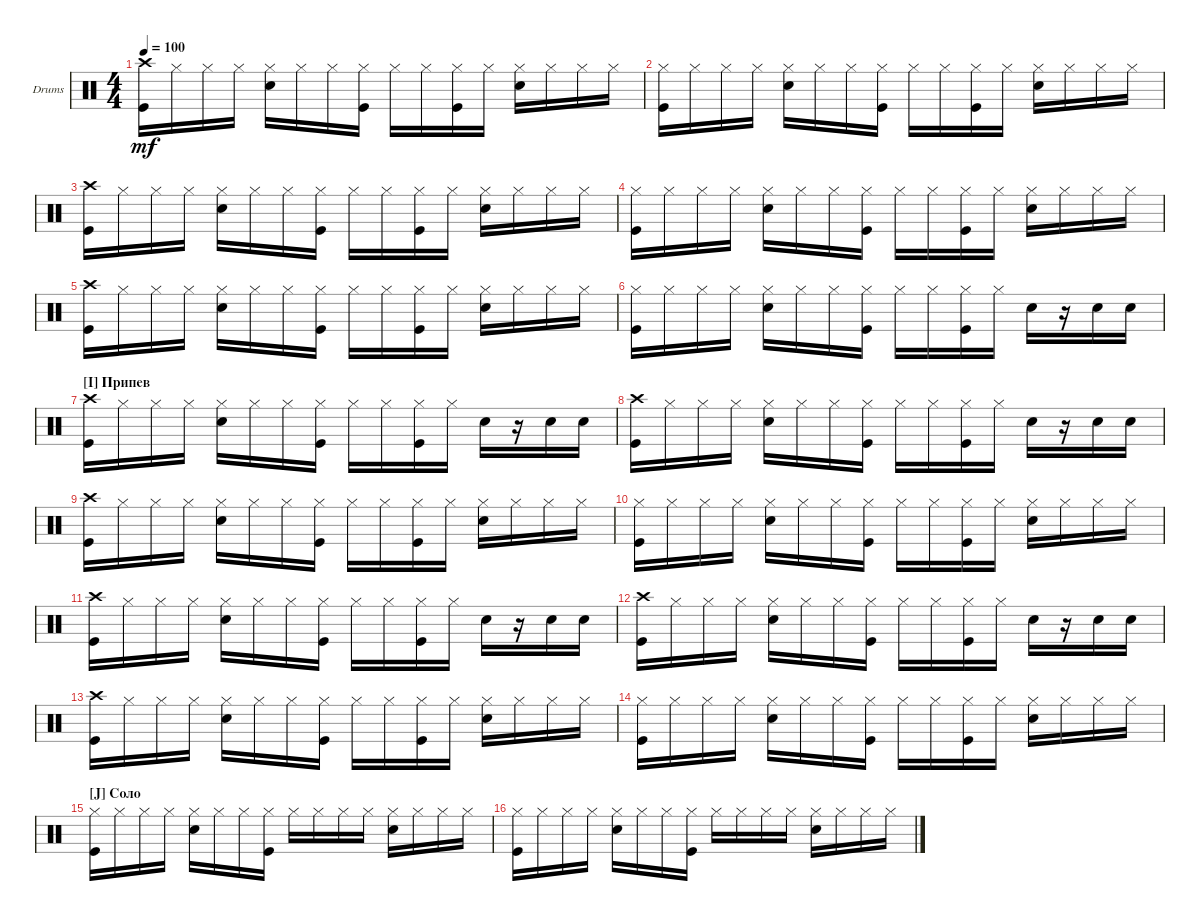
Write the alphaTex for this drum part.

\bracketExtendMode groupsimilarinstruments
\firstSystemTrackNameOrientation horizontal
\otherSystemsTrackNameOrientation horizontal
\track ("Drumkit" "Drums") {instrument percussion}
\staff {score}
\articulation defaults
\ts (4 4)
\tempo 100
\clef neutral
\ks c
("Kick (hit)" "Crash high (hit)").16{dy mf} "Hi-Hat (closed)".16 "Hi-Hat (closed)".16 "Hi-Hat (closed)".16 ("Hi-Hat (closed)" "Snare (hit) 2").16 "Hi-Hat (closed)".16 "Hi-Hat (closed)".16 ("Hi-Hat (closed)" "Kick (hit)").16 "Hi-Hat (closed)".16 "Hi-Hat (closed)".16 ("Hi-Hat (closed)" "Kick (hit)").16 "Hi-Hat (closed)".16 ("Hi-Hat (closed)" "Snare (hit) 2").16 "Hi-Hat (closed)".16 "Hi-Hat (closed)".16 "Hi-Hat (closed)".16 |
("Kick (hit)" "Hi-Hat (closed)").16 "Hi-Hat (closed)".16 "Hi-Hat (closed)".16 "Hi-Hat (closed)".16 ("Hi-Hat (closed)" "Snare (hit) 2").16 "Hi-Hat (closed)".16 "Hi-Hat (closed)".16 ("Hi-Hat (closed)" "Kick (hit)").16 "Hi-Hat (closed)".16 "Hi-Hat (closed)".16 ("Hi-Hat (closed)" "Kick (hit)").16 "Hi-Hat (closed)".16 ("Hi-Hat (closed)" "Snare (hit) 2").16 "Hi-Hat (closed)".16 "Hi-Hat (closed)".16 "Hi-Hat (closed)".16 |
("Kick (hit)" "Crash high (hit)").16 "Hi-Hat (closed)".16 "Hi-Hat (closed)".16 "Hi-Hat (closed)".16 ("Hi-Hat (closed)" "Snare (hit) 2").16 "Hi-Hat (closed)".16 "Hi-Hat (closed)".16 ("Hi-Hat (closed)" "Kick (hit)").16 "Hi-Hat (closed)".16 "Hi-Hat (closed)".16 ("Hi-Hat (closed)" "Kick (hit)").16 "Hi-Hat (closed)".16 ("Hi-Hat (closed)" "Snare (hit) 2").16 "Hi-Hat (closed)".16 "Hi-Hat (closed)".16 "Hi-Hat (closed)".16 |
("Kick (hit)" "Hi-Hat (closed)").16 "Hi-Hat (closed)".16 "Hi-Hat (closed)".16 "Hi-Hat (closed)".16 ("Hi-Hat (closed)" "Snare (hit) 2").16 "Hi-Hat (closed)".16 "Hi-Hat (closed)".16 ("Hi-Hat (closed)" "Kick (hit)").16 "Hi-Hat (closed)".16 "Hi-Hat (closed)".16 ("Hi-Hat (closed)" "Kick (hit)").16 "Hi-Hat (closed)".16 ("Hi-Hat (closed)" "Snare (hit) 2").16 "Hi-Hat (closed)".16 "Hi-Hat (closed)".16 "Hi-Hat (closed)".16 |
("Kick (hit)" "Crash high (hit)").16 "Hi-Hat (closed)".16 "Hi-Hat (closed)".16 "Hi-Hat (closed)".16 ("Hi-Hat (closed)" "Snare (hit) 2").16 "Hi-Hat (closed)".16 "Hi-Hat (closed)".16 ("Hi-Hat (closed)" "Kick (hit)").16 "Hi-Hat (closed)".16 "Hi-Hat (closed)".16 ("Hi-Hat (closed)" "Kick (hit)").16 "Hi-Hat (closed)".16 ("Hi-Hat (closed)" "Snare (hit) 2").16 "Hi-Hat (closed)".16 "Hi-Hat (closed)".16 "Hi-Hat (closed)".16 |
("Kick (hit)" "Hi-Hat (closed)").16 "Hi-Hat (closed)".16 "Hi-Hat (closed)".16 "Hi-Hat (closed)".16 ("Hi-Hat (closed)" "Snare (hit) 2").16 "Hi-Hat (closed)".16 "Hi-Hat (closed)".16 ("Hi-Hat (closed)" "Kick (hit)").16 "Hi-Hat (closed)".16 "Hi-Hat (closed)".16 ("Hi-Hat (closed)" "Kick (hit)").16 "Hi-Hat (closed)".16 "Snare (hit) 2".16 r.16 "Snare (hit) 2".16 "Snare (hit) 2".16 |
\section ("I" "Припев")
("Kick (hit)" "Crash high (hit)").16 "Hi-Hat (closed)".16 "Hi-Hat (closed)".16 "Hi-Hat (closed)".16 ("Hi-Hat (closed)" "Snare (hit) 2").16 "Hi-Hat (closed)".16 "Hi-Hat (closed)".16 ("Hi-Hat (closed)" "Kick (hit)").16 "Hi-Hat (closed)".16 "Hi-Hat (closed)".16 ("Hi-Hat (closed)" "Kick (hit)").16 "Hi-Hat (closed)".16 "Snare (hit) 2".16 r.16 "Snare (hit) 2".16 "Snare (hit) 2".16 |
("Kick (hit)" "Crash high (hit)").16 "Hi-Hat (closed)".16 "Hi-Hat (closed)".16 "Hi-Hat (closed)".16 ("Hi-Hat (closed)" "Snare (hit) 2").16 "Hi-Hat (closed)".16 "Hi-Hat (closed)".16 ("Hi-Hat (closed)" "Kick (hit)").16 "Hi-Hat (closed)".16 "Hi-Hat (closed)".16 ("Hi-Hat (closed)" "Kick (hit)").16 "Hi-Hat (closed)".16 "Snare (hit) 2".16 r.16 "Snare (hit) 2".16 "Snare (hit) 2".16 |
("Kick (hit)" "Crash high (hit)").16 "Hi-Hat (closed)".16 "Hi-Hat (closed)".16 "Hi-Hat (closed)".16 ("Hi-Hat (closed)" "Snare (hit) 2").16 "Hi-Hat (closed)".16 "Hi-Hat (closed)".16 ("Hi-Hat (closed)" "Kick (hit)").16 "Hi-Hat (closed)".16 "Hi-Hat (closed)".16 ("Hi-Hat (closed)" "Kick (hit)").16 "Hi-Hat (closed)".16 ("Hi-Hat (closed)" "Snare (hit) 2").16 "Hi-Hat (closed)".16 "Hi-Hat (closed)".16 "Hi-Hat (closed)".16 |
("Kick (hit)" "Hi-Hat (closed)").16 "Hi-Hat (closed)".16 "Hi-Hat (closed)".16 "Hi-Hat (closed)".16 ("Hi-Hat (closed)" "Snare (hit) 2").16 "Hi-Hat (closed)".16 "Hi-Hat (closed)".16 ("Hi-Hat (closed)" "Kick (hit)").16 "Hi-Hat (closed)".16 "Hi-Hat (closed)".16 ("Hi-Hat (closed)" "Kick (hit)").16 "Hi-Hat (closed)".16 ("Hi-Hat (closed)" "Snare (hit) 2").16 "Hi-Hat (closed)".16 "Hi-Hat (closed)".16 "Hi-Hat (closed)".16 |
("Kick (hit)" "Crash high (hit)").16 "Hi-Hat (closed)".16 "Hi-Hat (closed)".16 "Hi-Hat (closed)".16 ("Hi-Hat (closed)" "Snare (hit) 2").16 "Hi-Hat (closed)".16 "Hi-Hat (closed)".16 ("Hi-Hat (closed)" "Kick (hit)").16 "Hi-Hat (closed)".16 "Hi-Hat (closed)".16 ("Hi-Hat (closed)" "Kick (hit)").16 "Hi-Hat (closed)".16 "Snare (hit) 2".16 r.16 "Snare (hit) 2".16 "Snare (hit) 2".16 |
("Kick (hit)" "Crash high (hit)").16 "Hi-Hat (closed)".16 "Hi-Hat (closed)".16 "Hi-Hat (closed)".16 ("Hi-Hat (closed)" "Snare (hit) 2").16 "Hi-Hat (closed)".16 "Hi-Hat (closed)".16 ("Hi-Hat (closed)" "Kick (hit)").16 "Hi-Hat (closed)".16 "Hi-Hat (closed)".16 ("Hi-Hat (closed)" "Kick (hit)").16 "Hi-Hat (closed)".16 "Snare (hit) 2".16 r.16 "Snare (hit) 2".16 "Snare (hit) 2".16 |
("Kick (hit)" "Crash high (hit)").16 "Hi-Hat (closed)".16 "Hi-Hat (closed)".16 "Hi-Hat (closed)".16 ("Hi-Hat (closed)" "Snare (hit) 2").16 "Hi-Hat (closed)".16 "Hi-Hat (closed)".16 ("Hi-Hat (closed)" "Kick (hit)").16 "Hi-Hat (closed)".16 "Hi-Hat (closed)".16 ("Hi-Hat (closed)" "Kick (hit)").16 "Hi-Hat (closed)".16 ("Hi-Hat (closed)" "Snare (hit) 2").16 "Hi-Hat (closed)".16 "Hi-Hat (closed)".16 "Hi-Hat (closed)".16 |
("Kick (hit)" "Hi-Hat (closed)").16 "Hi-Hat (closed)".16 "Hi-Hat (closed)".16 "Hi-Hat (closed)".16 ("Hi-Hat (closed)" "Snare (hit) 2").16 "Hi-Hat (closed)".16 "Hi-Hat (closed)".16 ("Hi-Hat (closed)" "Kick (hit)").16 "Hi-Hat (closed)".16 "Hi-Hat (closed)".16 ("Hi-Hat (closed)" "Kick (hit)").16 "Hi-Hat (closed)".16 ("Hi-Hat (closed)" "Snare (hit) 2").16 "Hi-Hat (closed)".16 "Hi-Hat (closed)".16 "Hi-Hat (closed)".16 |
\section ("J" "Соло")
("Kick (hit)" "Hi-Hat (closed)").16 "Hi-Hat (closed)".16 "Hi-Hat (closed)".16 "Hi-Hat (closed)".16 ("Hi-Hat (closed)" "Snare (hit) 2").16 "Hi-Hat (closed)".16 "Hi-Hat (closed)".16 ("Hi-Hat (closed)" "Kick (hit)").16 "Hi-Hat (closed)".16 "Hi-Hat (closed)".16 "Hi-Hat (closed)".16 "Hi-Hat (closed)".16 ("Hi-Hat (closed)" "Snare (hit) 2").16 "Hi-Hat (closed)".16 "Hi-Hat (closed)".16 "Hi-Hat (closed)".16 |
("Kick (hit)" "Hi-Hat (closed)").16 "Hi-Hat (closed)".16 "Hi-Hat (closed)".16 "Hi-Hat (closed)".16 ("Hi-Hat (closed)" "Snare (hit) 2").16 "Hi-Hat (closed)".16 "Hi-Hat (closed)".16 ("Hi-Hat (closed)" "Kick (hit)").16 "Hi-Hat (closed)".16 "Hi-Hat (closed)".16 "Hi-Hat (closed)".16 "Hi-Hat (closed)".16 ("Hi-Hat (closed)" "Snare (hit) 2").16 "Hi-Hat (closed)".16 "Hi-Hat (closed)".16 "Hi-Hat (closed)".16
